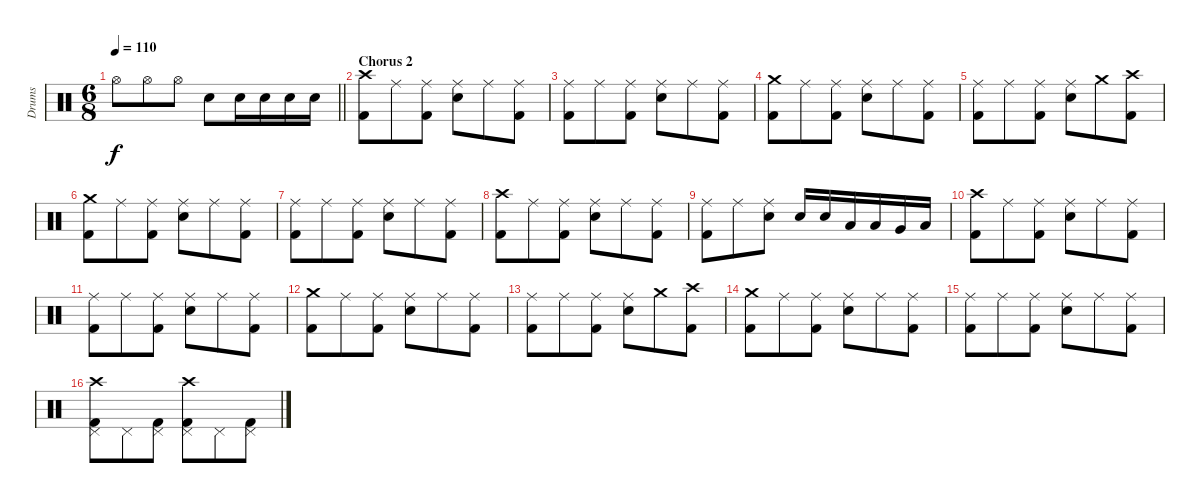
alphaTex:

\track ("Drums" "Drums") {instrument percussion}
\staff {score}
\articulation defaults
\ts (6 8)
\tempo 110
\clef neutral
\barLineRight lightlight
\ks c "Hi-Hat (open)".8{dy f} "Hi-Hat (open)".8 "Hi-Hat (open)".8 "Snare (hit) 2".8 "Snare (hit) 2".16 "Snare (hit) 2".16 "Snare (hit) 2".16 "Snare (hit) 2".16
|
\section ("" "Chorus 2")
("Crash high (hit)" "Kick (hit) 2").8 "Ride (middle)".8 ("Ride (middle)" "Kick (hit) 2").8 ("Ride (middle)" "Snare (hit) 2").8 "Ride (middle)".8 ("Ride (middle)" "Kick (hit) 2").8 |
("Ride (middle)" "Kick (hit) 2").8 "Ride (middle)".8 ("Ride (middle)" "Kick (hit) 2").8 ("Ride (middle)" "Snare (hit) 2").8 "Ride (middle)".8 ("Ride (middle)" "Kick (hit) 2").8 |
("Crash medium (hit)" "Kick (hit) 2").8 "Ride (middle)".8 ("Ride (middle)" "Kick (hit) 2").8 ("Ride (middle)" "Snare (hit) 2").8 "Ride (middle)".8 ("Ride (middle)" "Kick (hit) 2").8 |
("Ride (middle)" "Kick (hit) 2").8 "Ride (middle)".8 ("Ride (middle)" "Kick (hit) 2").8 ("Ride (middle)" "Snare (hit) 2").8 "Crash medium (hit)".8 ("Crash high (hit)" "Kick (hit) 2").8 |
("Crash medium (hit)" "Kick (hit) 2").8 "Ride (middle)".8 ("Ride (middle)" "Kick (hit) 2").8 ("Ride (middle)" "Snare (hit) 2").8 "Ride (middle)".8 ("Ride (middle)" "Kick (hit) 2").8 |
("Ride (middle)" "Kick (hit) 2").8 "Ride (middle)".8 ("Ride (middle)" "Kick (hit) 2").8 ("Ride (middle)" "Snare (hit) 2").8 "Ride (middle)".8 ("Ride (middle)" "Kick (hit) 2").8 |
("Crash high (hit)" "Kick (hit) 2").8 "Ride (middle)".8 ("Ride (middle)" "Kick (hit) 2").8 ("Ride (middle)" "Snare (hit) 2").8 "Ride (middle)".8 ("Ride (middle)" "Kick (hit) 2").8 |
("Ride (middle)" "Kick (hit) 2").8 "Ride (middle)".8 ("Ride (middle)" "Snare (hit) 2").8 "Snare (hit) 2".16 "Snare (hit) 2".16 "Low Tom (hit)".16 "Low Tom (hit)".16 "Very Low Tom (hit)".16 "Low Floor Tom (hit)".16 |
("Crash high (hit)" "Kick (hit) 2").8 "Ride (middle)".8 ("Ride (middle)" "Kick (hit) 2").8 ("Ride (middle)" "Snare (hit) 2").8 "Ride (middle)".8 ("Ride (middle)" "Kick (hit) 2").8 |
("Ride (middle)" "Kick (hit) 2").8 "Ride (middle)".8 ("Ride (middle)" "Kick (hit) 2").8 ("Ride (middle)" "Snare (hit) 2").8 "Ride (middle)".8 ("Ride (middle)" "Kick (hit) 2").8 |
("Crash medium (hit)" "Kick (hit) 2").8 "Ride (middle)".8 ("Ride (middle)" "Kick (hit) 2").8 ("Ride (middle)" "Snare (hit) 2").8 "Ride (middle)".8 ("Ride (middle)" "Kick (hit) 2").8 |
("Ride (middle)" "Kick (hit) 2").8 "Ride (middle)".8 ("Ride (middle)" "Kick (hit) 2").8 ("Ride (middle)" "Snare (hit) 2").8 "Crash medium (hit)".8 ("Crash high (hit)" "Kick (hit) 2").8 |
("Crash medium (hit)" "Kick (hit) 2").8 "Ride (middle)".8 ("Ride (middle)" "Kick (hit) 2").8 ("Ride (middle)" "Snare (hit) 2").8 "Ride (middle)".8 ("Ride (middle)" "Kick (hit) 2").8 |
("Ride (middle)" "Kick (hit) 2").8 "Ride (middle)".8 ("Ride (middle)" "Kick (hit) 2").8 ("Ride (middle)" "Snare (hit) 2").8 "Ride (middle)".8 ("Ride (middle)" "Kick (hit) 2").8 |
("Crash high (hit)" "Pedal Hi-Hat (hit)" "Kick (hit) 2").8 "Pedal Hi-Hat (hit)".8 ("Pedal Hi-Hat (hit)" "Kick (hit) 2").8 ("Crash high (hit)" "Pedal Hi-Hat (hit)" "Kick (hit) 2").8 "Pedal Hi-Hat (hit)".8 ("Pedal Hi-Hat (hit)" "Kick (hit) 2").8
